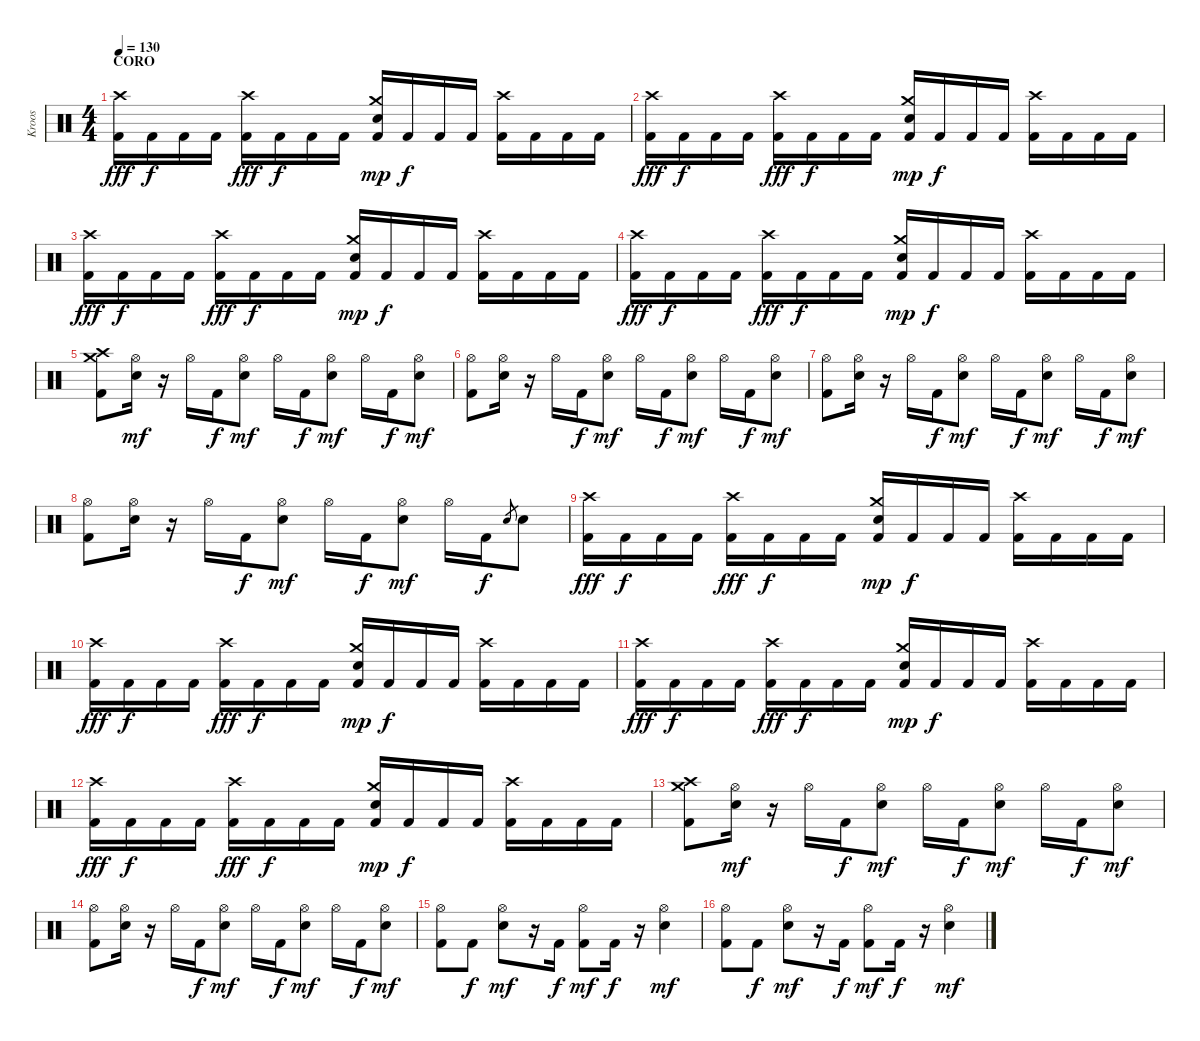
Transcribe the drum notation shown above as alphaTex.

\track ("Kroos" "Kroos") {instrument percussion}
\staff {score}
\articulation defaults
\ts (4 4)
\section ("" "CORO")
\tempo 130
\clef neutral
\ks c
("Crash high (hit)" "Kick (hit) 2").16{dy fff} "Kick (hit) 2".16{dy f} "Kick (hit) 2".16 "Kick (hit) 2".16 ("Crash high (hit)" "Kick (hit) 2").16{dy fff} "Kick (hit) 2".16{dy f} "Kick (hit) 2".16 "Kick (hit) 2".16 ("Crash medium (hit)" "Electric Snare (hit)" "Kick (hit) 2").16{dy mp} "Kick (hit) 2".16{dy f} "Kick (hit) 2".16 "Kick (hit) 2".16 ("Crash high (hit)" "Kick (hit) 2").16 "Kick (hit) 2".16 "Kick (hit) 2".16 "Kick (hit) 2".16 |
("Crash high (hit)" "Kick (hit) 2").16{dy fff} "Kick (hit) 2".16{dy f} "Kick (hit) 2".16 "Kick (hit) 2".16 ("Crash high (hit)" "Kick (hit) 2").16{dy fff} "Kick (hit) 2".16{dy f} "Kick (hit) 2".16 "Kick (hit) 2".16 ("Crash medium (hit)" "Electric Snare (hit)" "Kick (hit) 2").16{dy mp} "Kick (hit) 2".16{dy f} "Kick (hit) 2".16 "Kick (hit) 2".16 ("Crash high (hit)" "Kick (hit) 2").16 "Kick (hit) 2".16 "Kick (hit) 2".16 "Kick (hit) 2".16 |
("Crash high (hit)" "Kick (hit) 2").16{dy fff} "Kick (hit) 2".16{dy f} "Kick (hit) 2".16 "Kick (hit) 2".16 ("Crash high (hit)" "Kick (hit) 2").16{dy fff} "Kick (hit) 2".16{dy f} "Kick (hit) 2".16 "Kick (hit) 2".16 ("Crash medium (hit)" "Electric Snare (hit)" "Kick (hit) 2").16{dy mp} "Kick (hit) 2".16{dy f} "Kick (hit) 2".16 "Kick (hit) 2".16 ("Crash high (hit)" "Kick (hit) 2").16 "Kick (hit) 2".16 "Kick (hit) 2".16 "Kick (hit) 2".16 |
("Crash high (hit)" "Kick (hit) 2").16{dy fff} "Kick (hit) 2".16{dy f} "Kick (hit) 2".16 "Kick (hit) 2".16 ("Crash high (hit)" "Kick (hit) 2").16{dy fff} "Kick (hit) 2".16{dy f} "Kick (hit) 2".16 "Kick (hit) 2".16 ("Crash medium (hit)" "Electric Snare (hit)" "Kick (hit) 2").16{dy mp} "Kick (hit) 2".16{dy f} "Kick (hit) 2".16 "Kick (hit) 2".16 ("Crash high (hit)" "Kick (hit) 2").16 "Kick (hit) 2".16 "Kick (hit) 2".16 "Kick (hit) 2".16 |
("Crash high (hit)" "Crash medium (hit)" "Kick (hit) 2").8 ("Hi-Hat (open)" "Electric Snare (hit)").16{dy mf} r.16 "Hi-Hat (open)".16 "Kick (hit) 2".16{dy f} ("Hi-Hat (open)" "Electric Snare (hit)").8{dy mf} "Hi-Hat (open)".16 "Kick (hit) 2".16{dy f} ("Hi-Hat (open)" "Electric Snare (hit)").8{dy mf} "Hi-Hat (open)".16 "Kick (hit) 2".16{dy f} ("Hi-Hat (open)" "Electric Snare (hit)").8{dy mf} |
("Hi-Hat (open)" "Kick (hit) 2").8 ("Hi-Hat (open)" "Electric Snare (hit)").16 r.16 "Hi-Hat (open)".16 "Kick (hit) 2".16{dy f} ("Hi-Hat (open)" "Electric Snare (hit)").8{dy mf} "Hi-Hat (open)".16 "Kick (hit) 2".16{dy f} ("Hi-Hat (open)" "Electric Snare (hit)").8{dy mf} "Hi-Hat (open)".16 "Kick (hit) 2".16{dy f} ("Hi-Hat (open)" "Electric Snare (hit)").8{dy mf} |
("Hi-Hat (open)" "Kick (hit) 2").8 ("Hi-Hat (open)" "Electric Snare (hit)").16 r.16 "Hi-Hat (open)".16 "Kick (hit) 2".16{dy f} ("Hi-Hat (open)" "Electric Snare (hit)").8{dy mf} "Hi-Hat (open)".16 "Kick (hit) 2".16{dy f} ("Hi-Hat (open)" "Electric Snare (hit)").8{dy mf} "Hi-Hat (open)".16 "Kick (hit) 2".16{dy f} ("Hi-Hat (open)" "Electric Snare (hit)").8{dy mf} |
("Hi-Hat (open)" "Kick (hit) 2").8 ("Hi-Hat (open)" "Electric Snare (hit)").16 r.16 "Hi-Hat (open)".16 "Kick (hit) 2".16{dy f} ("Hi-Hat (open)" "Electric Snare (hit)").8{dy mf} "Hi-Hat (open)".16 "Kick (hit) 2".16{dy f} ("Hi-Hat (open)" "Electric Snare (hit)").8{dy mf} "Hi-Hat (open)".16 "Kick (hit) 2".16{dy f} "Electric Snare (hit)".8{gr} "Electric Snare (hit)".8 |
("Crash high (hit)" "Kick (hit) 2").16{dy fff} "Kick (hit) 2".16{dy f} "Kick (hit) 2".16 "Kick (hit) 2".16 ("Crash high (hit)" "Kick (hit) 2").16{dy fff} "Kick (hit) 2".16{dy f} "Kick (hit) 2".16 "Kick (hit) 2".16 ("Crash medium (hit)" "Electric Snare (hit)" "Kick (hit) 2").16{dy mp} "Kick (hit) 2".16{dy f} "Kick (hit) 2".16 "Kick (hit) 2".16 ("Crash high (hit)" "Kick (hit) 2").16 "Kick (hit) 2".16 "Kick (hit) 2".16 "Kick (hit) 2".16 |
("Crash high (hit)" "Kick (hit) 2").16{dy fff} "Kick (hit) 2".16{dy f} "Kick (hit) 2".16 "Kick (hit) 2".16 ("Crash high (hit)" "Kick (hit) 2").16{dy fff} "Kick (hit) 2".16{dy f} "Kick (hit) 2".16 "Kick (hit) 2".16 ("Crash medium (hit)" "Electric Snare (hit)" "Kick (hit) 2").16{dy mp} "Kick (hit) 2".16{dy f} "Kick (hit) 2".16 "Kick (hit) 2".16 ("Crash high (hit)" "Kick (hit) 2").16 "Kick (hit) 2".16 "Kick (hit) 2".16 "Kick (hit) 2".16 |
("Crash high (hit)" "Kick (hit) 2").16{dy fff} "Kick (hit) 2".16{dy f} "Kick (hit) 2".16 "Kick (hit) 2".16 ("Crash high (hit)" "Kick (hit) 2").16{dy fff} "Kick (hit) 2".16{dy f} "Kick (hit) 2".16 "Kick (hit) 2".16 ("Crash medium (hit)" "Electric Snare (hit)" "Kick (hit) 2").16{dy mp} "Kick (hit) 2".16{dy f} "Kick (hit) 2".16 "Kick (hit) 2".16 ("Crash high (hit)" "Kick (hit) 2").16 "Kick (hit) 2".16 "Kick (hit) 2".16 "Kick (hit) 2".16 |
("Crash high (hit)" "Kick (hit) 2").16{dy fff} "Kick (hit) 2".16{dy f} "Kick (hit) 2".16 "Kick (hit) 2".16 ("Crash high (hit)" "Kick (hit) 2").16{dy fff} "Kick (hit) 2".16{dy f} "Kick (hit) 2".16 "Kick (hit) 2".16 ("Crash medium (hit)" "Electric Snare (hit)" "Kick (hit) 2").16{dy mp} "Kick (hit) 2".16{dy f} "Kick (hit) 2".16 "Kick (hit) 2".16 ("Crash high (hit)" "Kick (hit) 2").16 "Kick (hit) 2".16 "Kick (hit) 2".16 "Kick (hit) 2".16 |
("Crash high (hit)" "Crash medium (hit)" "Kick (hit) 2").8 ("Hi-Hat (open)" "Electric Snare (hit)").16{dy mf} r.16 "Hi-Hat (open)".16 "Kick (hit) 2".16{dy f} ("Hi-Hat (open)" "Electric Snare (hit)").8{dy mf} "Hi-Hat (open)".16 "Kick (hit) 2".16{dy f} ("Hi-Hat (open)" "Electric Snare (hit)").8{dy mf} "Hi-Hat (open)".16 "Kick (hit) 2".16{dy f} ("Hi-Hat (open)" "Electric Snare (hit)").8{dy mf} |
("Hi-Hat (open)" "Kick (hit) 2").8 ("Hi-Hat (open)" "Electric Snare (hit)").16 r.16 "Hi-Hat (open)".16 "Kick (hit) 2".16{dy f} ("Hi-Hat (open)" "Electric Snare (hit)").8{dy mf} "Hi-Hat (open)".16 "Kick (hit) 2".16{dy f} ("Hi-Hat (open)" "Electric Snare (hit)").8{dy mf} "Hi-Hat (open)".16 "Kick (hit) 2".16{dy f} ("Hi-Hat (open)" "Electric Snare (hit)").8{dy mf} |
("Hi-Hat (open)" "Kick (hit) 2").8 "Kick (hit) 2".8{dy f} ("Hi-Hat (open)" "Electric Snare (hit)").8{dy mf} r.16 "Kick (hit) 2".16{dy f} ("Hi-Hat (open)" "Kick (hit) 2").8{dy mf} "Kick (hit) 2".16{dy f} r.16 ("Hi-Hat (open)" "Electric Snare (hit)").4{dy mf} |
("Hi-Hat (open)" "Kick (hit) 2").8 "Kick (hit) 2".8{dy f} ("Hi-Hat (open)" "Electric Snare (hit)").8{dy mf} r.16 "Kick (hit) 2".16{dy f} ("Hi-Hat (open)" "Kick (hit) 2").8{dy mf} "Kick (hit) 2".16{dy f} r.16 ("Hi-Hat (open)" "Electric Snare (hit)").4{dy mf}
